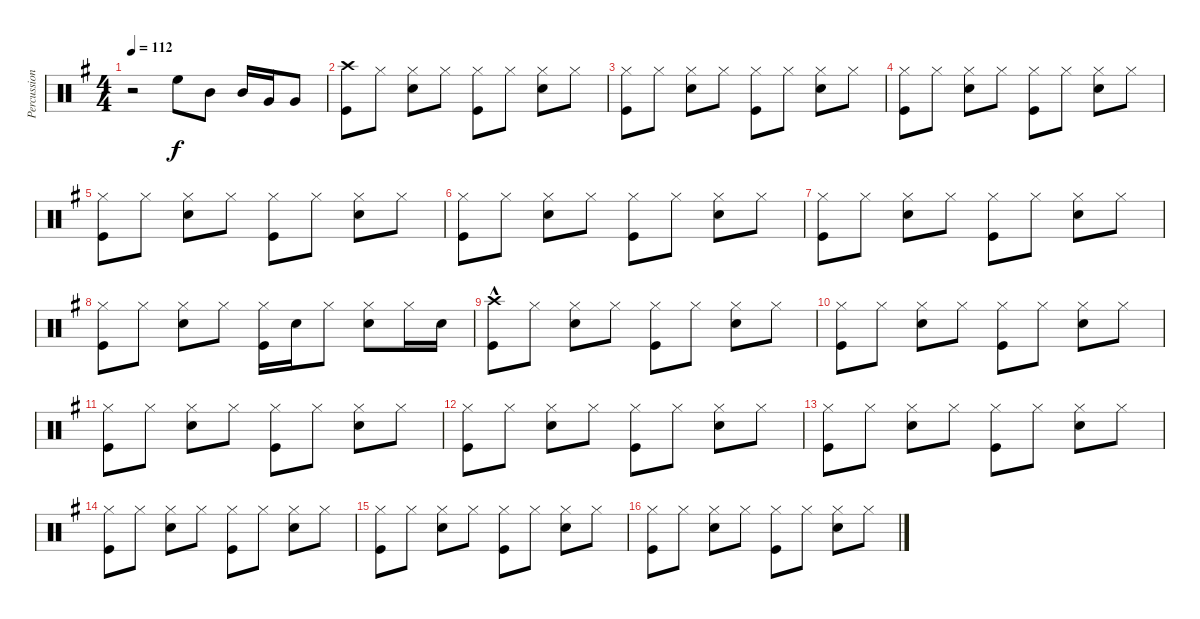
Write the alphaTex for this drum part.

\track ("Percussion" "Percussion") {instrument percussion}
\staff {score}
\articulation defaults
\ts (4 4)
\tempo 112
\clef neutral
\ks g
r.2{dy f} "High Floor Tom (hit)".8 "Mid Tom (hit)".8 "Mid Tom (hit)".16 "Very Low Tom (hit)".16 "Very Low Tom (hit)".8 |
("Crash high (hit)" "Kick (hit)").8 "Hi-Hat (closed)".8 ("Hi-Hat (closed)" "Snare (hit) 2").8 "Hi-Hat (closed)".8 ("Hi-Hat (closed)" "Kick (hit)").8 "Hi-Hat (closed)".8 ("Hi-Hat (closed)" "Snare (hit) 2").8 "Hi-Hat (closed)".8 |
("Hi-Hat (closed)" "Kick (hit)").8 "Hi-Hat (closed)".8 ("Hi-Hat (closed)" "Snare (hit) 2").8 "Hi-Hat (closed)".8 ("Hi-Hat (closed)" "Kick (hit)").8 "Hi-Hat (closed)".8 ("Hi-Hat (closed)" "Snare (hit) 2").8 "Hi-Hat (closed)".8 |
("Hi-Hat (closed)" "Kick (hit)").8 "Hi-Hat (closed)".8 ("Hi-Hat (closed)" "Snare (hit) 2").8 "Hi-Hat (closed)".8 ("Hi-Hat (closed)" "Kick (hit)").8 "Hi-Hat (closed)".8 ("Hi-Hat (closed)" "Snare (hit) 2").8 "Hi-Hat (closed)".8 |
("Hi-Hat (closed)" "Kick (hit)").8 "Hi-Hat (closed)".8 ("Hi-Hat (closed)" "Snare (hit) 2").8 "Hi-Hat (closed)".8 ("Hi-Hat (closed)" "Kick (hit)").8 "Hi-Hat (closed)".8 ("Hi-Hat (closed)" "Snare (hit) 2").8 "Hi-Hat (closed)".8 |
("Hi-Hat (closed)" "Kick (hit)").8 "Hi-Hat (closed)".8 ("Hi-Hat (closed)" "Snare (hit) 2").8 "Hi-Hat (closed)".8 ("Hi-Hat (closed)" "Kick (hit)").8 "Hi-Hat (closed)".8 ("Hi-Hat (closed)" "Snare (hit) 2").8 "Hi-Hat (closed)".8 |
("Hi-Hat (closed)" "Kick (hit)").8 "Hi-Hat (closed)".8 ("Hi-Hat (closed)" "Snare (hit) 2").8 "Hi-Hat (closed)".8 ("Hi-Hat (closed)" "Kick (hit)").8 "Hi-Hat (closed)".8 ("Hi-Hat (closed)" "Snare (hit) 2").8 "Hi-Hat (closed)".8 |
("Hi-Hat (closed)" "Kick (hit)").8 "Hi-Hat (closed)".8 ("Hi-Hat (closed)" "Snare (hit) 2").8 "Hi-Hat (closed)".8 ("Hi-Hat (closed)" "Kick (hit)").16 "Snare (hit) 2".16 "Hi-Hat (closed)".8 ("Hi-Hat (closed)" "Snare (hit) 2").8 "Hi-Hat (closed)".16 "Snare (hit) 2".16 |
("Crash high (hit)"{hac} "Kick (hit)").8 "Hi-Hat (closed)".8 ("Hi-Hat (closed)" "Snare (hit) 2").8 "Hi-Hat (closed)".8 ("Hi-Hat (closed)" "Kick (hit)").8 "Hi-Hat (closed)".8 ("Hi-Hat (closed)" "Snare (hit) 2").8 "Hi-Hat (closed)".8 |
("Hi-Hat (closed)" "Kick (hit)").8 "Hi-Hat (closed)".8 ("Hi-Hat (closed)" "Snare (hit) 2").8 "Hi-Hat (closed)".8 ("Hi-Hat (closed)" "Kick (hit)").8 "Hi-Hat (closed)".8 ("Hi-Hat (closed)" "Snare (hit) 2").8 "Hi-Hat (closed)".8 |
("Hi-Hat (closed)" "Kick (hit)").8 "Hi-Hat (closed)".8 ("Hi-Hat (closed)" "Snare (hit) 2").8 "Hi-Hat (closed)".8 ("Hi-Hat (closed)" "Kick (hit)").8 "Hi-Hat (closed)".8 ("Hi-Hat (closed)" "Snare (hit) 2").8 "Hi-Hat (closed)".8 |
("Hi-Hat (closed)" "Kick (hit)").8 "Hi-Hat (closed)".8 ("Hi-Hat (closed)" "Snare (hit) 2").8 "Hi-Hat (closed)".8 ("Hi-Hat (closed)" "Kick (hit)").8 "Hi-Hat (closed)".8 ("Hi-Hat (closed)" "Snare (hit) 2").8 "Hi-Hat (closed)".8 |
("Hi-Hat (closed)" "Kick (hit)").8 "Hi-Hat (closed)".8 ("Hi-Hat (closed)" "Snare (hit) 2").8 "Hi-Hat (closed)".8 ("Hi-Hat (closed)" "Kick (hit)").8 "Hi-Hat (closed)".8 ("Hi-Hat (closed)" "Snare (hit) 2").8 "Hi-Hat (closed)".8 |
("Hi-Hat (closed)" "Kick (hit)").8 "Hi-Hat (closed)".8 ("Hi-Hat (closed)" "Snare (hit) 2").8 "Hi-Hat (closed)".8 ("Hi-Hat (closed)" "Kick (hit)").8 "Hi-Hat (closed)".8 ("Hi-Hat (closed)" "Snare (hit) 2").8 "Hi-Hat (closed)".8 |
("Hi-Hat (closed)" "Kick (hit)").8 "Hi-Hat (closed)".8 ("Hi-Hat (closed)" "Snare (hit) 2").8 "Hi-Hat (closed)".8 ("Hi-Hat (closed)" "Kick (hit)").8 "Hi-Hat (closed)".8 ("Hi-Hat (closed)" "Snare (hit) 2").8 "Hi-Hat (closed)".8 |
("Hi-Hat (closed)" "Kick (hit)").8 "Hi-Hat (closed)".8 ("Hi-Hat (closed)" "Snare (hit) 2").8 "Hi-Hat (closed)".8 ("Hi-Hat (closed)" "Kick (hit)").8 "Hi-Hat (closed)".8 ("Hi-Hat (closed)" "Snare (hit) 2").8 "Hi-Hat (closed)".8
